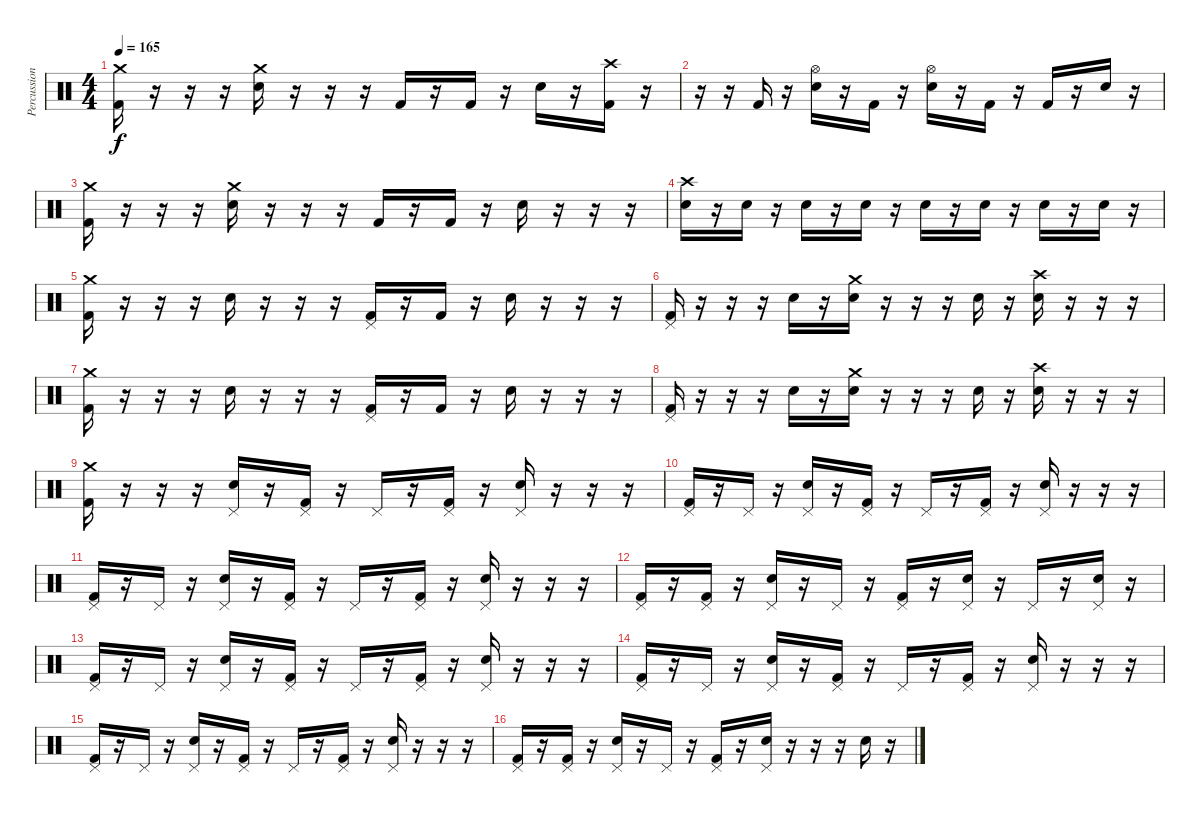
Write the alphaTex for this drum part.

\track ("Percussion" "Percussion") {instrument percussion}
\staff {score}
\articulation defaults
\ts (4 4)
\tempo 165
\clef neutral
\ks c
("Crash medium (hit)" "Kick (hit) 2").16{dy f} r.16 r.16 r.16 ("Crash medium (hit)" "Electric Snare (hit)").16 r.16 r.16 r.16 "Kick (hit) 2".16 r.16 "Kick (hit) 2".16 r.16 "Electric Snare (hit)".16 r.16 ("Crash high (hit)" "Kick (hit) 2").16 r.16 |
r.16 r.16 "Kick (hit) 2".16 r.16 ("Hi-Hat (open)" "Electric Snare (hit)").16 r.16 "Kick (hit) 2".16 r.16 ("Hi-Hat (open)" "Electric Snare (hit)").16 r.16 "Kick (hit) 2".16 r.16 "Kick (hit) 2".16 r.16 "Electric Snare (hit)".16 r.16 |
("Crash medium (hit)" "Kick (hit) 2").16 r.16 r.16 r.16 ("Crash medium (hit)" "Electric Snare (hit)").16 r.16 r.16 r.16 "Kick (hit) 2".16 r.16 "Kick (hit) 2".16 r.16 "Electric Snare (hit)".16 r.16 r.16 r.16 |
("Crash high (hit)" "Electric Snare (hit)").16 r.16 "Electric Snare (hit)".16 r.16 "Electric Snare (hit)".16 r.16 "Electric Snare (hit)".16 r.16 "Electric Snare (hit)".16 r.16 "Electric Snare (hit)".16 r.16 "Electric Snare (hit)".16 r.16 "Electric Snare (hit)".16 r.16 |
("Crash medium (hit)" "Kick (hit) 2").16 r.16 r.16 r.16 "Electric Snare (hit)".16 r.16 r.16 r.16 ("Pedal Hi-Hat (hit)" "Kick (hit) 2").16 r.16 "Kick (hit) 2".16 r.16 "Electric Snare (hit)".16 r.16 r.16 r.16 |
("Pedal Hi-Hat (hit)" "Kick (hit) 2").16 r.16 r.16 r.16 "Electric Snare (hit)".16 r.16 ("Crash medium (hit)" "Electric Snare (hit)").16 r.16 r.16 r.16 "Electric Snare (hit)".16 r.16 ("Crash high (hit)" "Electric Snare (hit)").16 r.16 r.16 r.16 |
("Crash medium (hit)" "Kick (hit) 2").16 r.16 r.16 r.16 "Electric Snare (hit)".16 r.16 r.16 r.16 ("Pedal Hi-Hat (hit)" "Kick (hit) 2").16 r.16 "Kick (hit) 2".16 r.16 "Electric Snare (hit)".16 r.16 r.16 r.16 |
("Pedal Hi-Hat (hit)" "Kick (hit) 2").16 r.16 r.16 r.16 "Electric Snare (hit)".16 r.16 ("Crash medium (hit)" "Electric Snare (hit)").16 r.16 r.16 r.16 "Electric Snare (hit)".16 r.16 ("Crash high (hit)" "Electric Snare (hit)").16 r.16 r.16 r.16 |
("Crash medium (hit)" "Kick (hit) 2").16 r.16 r.16 r.16 ("Pedal Hi-Hat (hit)" "Electric Snare (hit)").16 r.16 ("Pedal Hi-Hat (hit)" "Kick (hit) 2").16 r.16 "Pedal Hi-Hat (hit)".16 r.16 ("Pedal Hi-Hat (hit)" "Kick (hit) 2").16 r.16 ("Pedal Hi-Hat (hit)" "Electric Snare (hit)").16 r.16 r.16 r.16 |
("Pedal Hi-Hat (hit)" "Kick (hit) 2").16 r.16 "Pedal Hi-Hat (hit)".16 r.16 ("Pedal Hi-Hat (hit)" "Electric Snare (hit)").16 r.16 ("Pedal Hi-Hat (hit)" "Kick (hit) 2").16 r.16 "Pedal Hi-Hat (hit)".16 r.16 ("Pedal Hi-Hat (hit)" "Kick (hit) 2").16 r.16 ("Pedal Hi-Hat (hit)" "Electric Snare (hit)").16 r.16 r.16 r.16 |
("Pedal Hi-Hat (hit)" "Kick (hit) 2").16 r.16 "Pedal Hi-Hat (hit)".16 r.16 ("Pedal Hi-Hat (hit)" "Electric Snare (hit)").16 r.16 ("Pedal Hi-Hat (hit)" "Kick (hit) 2").16 r.16 "Pedal Hi-Hat (hit)".16 r.16 ("Pedal Hi-Hat (hit)" "Kick (hit) 2").16 r.16 ("Pedal Hi-Hat (hit)" "Electric Snare (hit)").16 r.16 r.16 r.16 |
("Pedal Hi-Hat (hit)" "Kick (hit) 2").16 r.16 ("Pedal Hi-Hat (hit)" "Kick (hit) 2").16 r.16 ("Pedal Hi-Hat (hit)" "Electric Snare (hit)").16 r.16 "Pedal Hi-Hat (hit)".16 r.16 ("Pedal Hi-Hat (hit)" "Kick (hit) 2").16 r.16 ("Pedal Hi-Hat (hit)" "Electric Snare (hit)").16 r.16 "Pedal Hi-Hat (hit)".16 r.16 ("Pedal Hi-Hat (hit)" "Electric Snare (hit)").16 r.16 |
("Pedal Hi-Hat (hit)" "Kick (hit) 2").16 r.16 "Pedal Hi-Hat (hit)".16 r.16 ("Pedal Hi-Hat (hit)" "Electric Snare (hit)").16 r.16 ("Pedal Hi-Hat (hit)" "Kick (hit) 2").16 r.16 "Pedal Hi-Hat (hit)".16 r.16 ("Pedal Hi-Hat (hit)" "Kick (hit) 2").16 r.16 ("Pedal Hi-Hat (hit)" "Electric Snare (hit)").16 r.16 r.16 r.16 |
("Pedal Hi-Hat (hit)" "Kick (hit) 2").16 r.16 "Pedal Hi-Hat (hit)".16 r.16 ("Pedal Hi-Hat (hit)" "Electric Snare (hit)").16 r.16 ("Pedal Hi-Hat (hit)" "Kick (hit) 2").16 r.16 "Pedal Hi-Hat (hit)".16 r.16 ("Pedal Hi-Hat (hit)" "Kick (hit) 2").16 r.16 ("Pedal Hi-Hat (hit)" "Electric Snare (hit)").16 r.16 r.16 r.16 |
("Pedal Hi-Hat (hit)" "Kick (hit) 2").16 r.16 "Pedal Hi-Hat (hit)".16 r.16 ("Pedal Hi-Hat (hit)" "Electric Snare (hit)").16 r.16 ("Pedal Hi-Hat (hit)" "Kick (hit) 2").16 r.16 "Pedal Hi-Hat (hit)".16 r.16 ("Pedal Hi-Hat (hit)" "Kick (hit) 2").16 r.16 ("Pedal Hi-Hat (hit)" "Electric Snare (hit)").16 r.16 r.16 r.16 |
("Pedal Hi-Hat (hit)" "Kick (hit) 2").16 r.16 ("Pedal Hi-Hat (hit)" "Kick (hit) 2").16 r.16 ("Pedal Hi-Hat (hit)" "Electric Snare (hit)").16 r.16 "Pedal Hi-Hat (hit)".16 r.16 ("Pedal Hi-Hat (hit)" "Kick (hit) 2").16 r.16 ("Pedal Hi-Hat (hit)" "Electric Snare (hit)").16 r.16 r.16 r.16 "Electric Snare (hit)".16 r.16
